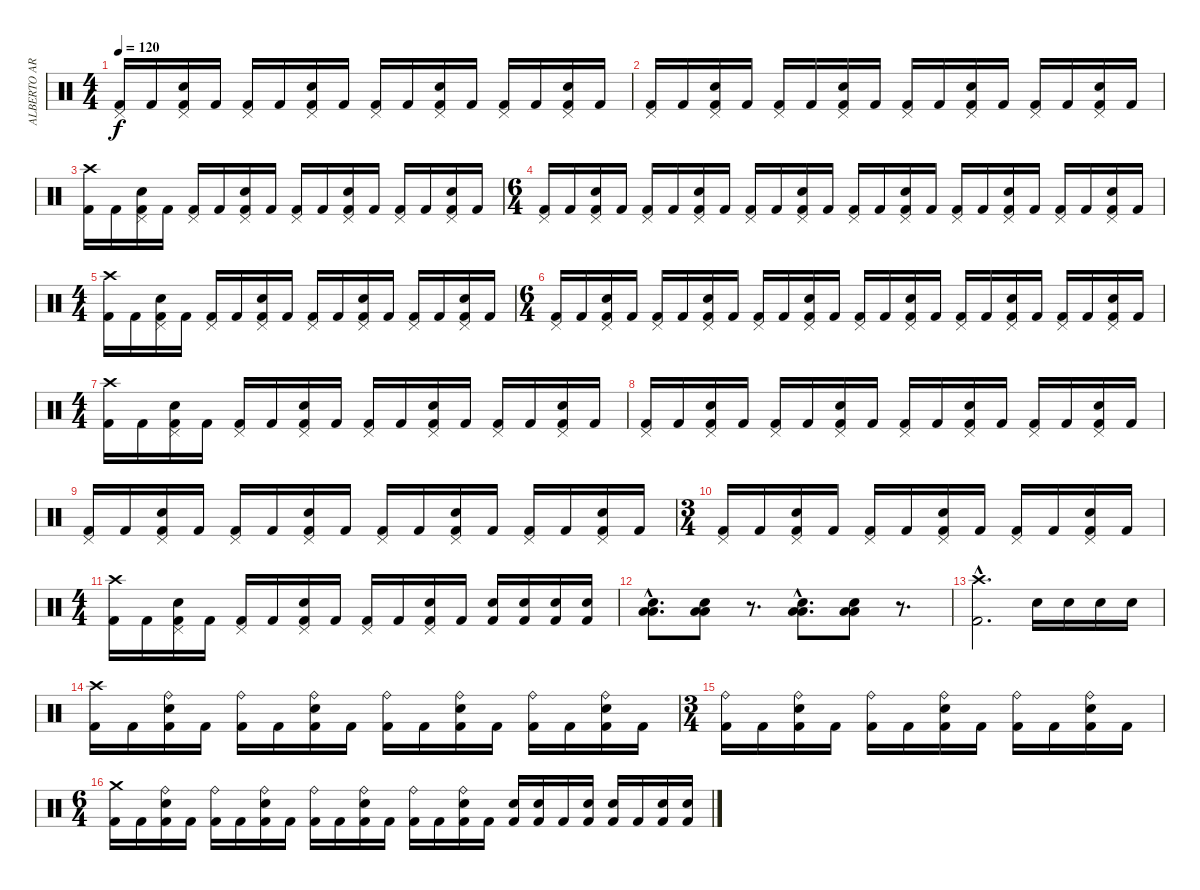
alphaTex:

\track ("ALBERTO ARDINES" "ALBERTO AR") {instrument percussion}
\staff {score}
\articulation defaults
\ts (4 4)
\tempo 120
\clef neutral
\ks c
("Pedal Hi-Hat (hit)" "Kick (hit) 2").16{dy f} "Kick (hit) 2".16 ("Pedal Hi-Hat (hit)" "Electric Snare (hit)" "Kick (hit) 2").16 "Kick (hit) 2".16 ("Pedal Hi-Hat (hit)" "Kick (hit) 2").16 "Kick (hit) 2".16 ("Pedal Hi-Hat (hit)" "Electric Snare (hit)" "Kick (hit) 2").16 "Kick (hit) 2".16 ("Pedal Hi-Hat (hit)" "Kick (hit) 2").16 "Kick (hit) 2".16 ("Pedal Hi-Hat (hit)" "Electric Snare (hit)" "Kick (hit) 2").16 "Kick (hit) 2".16 ("Pedal Hi-Hat (hit)" "Kick (hit) 2").16 "Kick (hit) 2".16 ("Pedal Hi-Hat (hit)" "Electric Snare (hit)" "Kick (hit) 2").16 "Kick (hit) 2".16 |
("Pedal Hi-Hat (hit)" "Kick (hit) 2").16 "Kick (hit) 2".16 ("Pedal Hi-Hat (hit)" "Electric Snare (hit)" "Kick (hit) 2").16 "Kick (hit) 2".16 ("Pedal Hi-Hat (hit)" "Kick (hit) 2").16 "Kick (hit) 2".16 ("Pedal Hi-Hat (hit)" "Electric Snare (hit)" "Kick (hit) 2").16 "Kick (hit) 2".16 ("Pedal Hi-Hat (hit)" "Kick (hit) 2").16 "Kick (hit) 2".16 ("Pedal Hi-Hat (hit)" "Electric Snare (hit)" "Kick (hit) 2").16 "Kick (hit) 2".16 ("Pedal Hi-Hat (hit)" "Kick (hit) 2").16 "Kick (hit) 2".16 ("Pedal Hi-Hat (hit)" "Electric Snare (hit)" "Kick (hit) 2").16 "Kick (hit) 2".16 |
("Crash high (hit)" "Kick (hit) 2").16 "Kick (hit) 2".16 ("Pedal Hi-Hat (hit)" "Electric Snare (hit)" "Kick (hit) 2").16 "Kick (hit) 2".16 ("Pedal Hi-Hat (hit)" "Kick (hit) 2").16 "Kick (hit) 2".16 ("Pedal Hi-Hat (hit)" "Electric Snare (hit)" "Kick (hit) 2").16 "Kick (hit) 2".16 ("Pedal Hi-Hat (hit)" "Kick (hit) 2").16 "Kick (hit) 2".16 ("Pedal Hi-Hat (hit)" "Electric Snare (hit)" "Kick (hit) 2").16 "Kick (hit) 2".16 ("Pedal Hi-Hat (hit)" "Kick (hit) 2").16 "Kick (hit) 2".16 ("Pedal Hi-Hat (hit)" "Electric Snare (hit)" "Kick (hit) 2").16 "Kick (hit) 2".16 |
\ts (6 4)
("Pedal Hi-Hat (hit)" "Kick (hit) 2").16 "Kick (hit) 2".16 ("Pedal Hi-Hat (hit)" "Electric Snare (hit)" "Kick (hit) 2").16 "Kick (hit) 2".16 ("Pedal Hi-Hat (hit)" "Kick (hit) 2").16 "Kick (hit) 2".16 ("Pedal Hi-Hat (hit)" "Electric Snare (hit)" "Kick (hit) 2").16 "Kick (hit) 2".16 ("Pedal Hi-Hat (hit)" "Kick (hit) 2").16 "Kick (hit) 2".16 ("Pedal Hi-Hat (hit)" "Electric Snare (hit)" "Kick (hit) 2").16 "Kick (hit) 2".16 ("Pedal Hi-Hat (hit)" "Kick (hit) 2").16 "Kick (hit) 2".16 ("Pedal Hi-Hat (hit)" "Electric Snare (hit)" "Kick (hit) 2").16 "Kick (hit) 2".16 ("Pedal Hi-Hat (hit)" "Kick (hit) 2").16 "Kick (hit) 2".16 ("Pedal Hi-Hat (hit)" "Electric Snare (hit)" "Kick (hit) 2").16 "Kick (hit) 2".16 ("Pedal Hi-Hat (hit)" "Kick (hit) 2").16 "Kick (hit) 2".16 ("Pedal Hi-Hat (hit)" "Electric Snare (hit)" "Kick (hit) 2").16 "Kick (hit) 2".16 |
\ts (4 4)
("Crash high (hit)" "Kick (hit) 2").16 "Kick (hit) 2".16 ("Pedal Hi-Hat (hit)" "Electric Snare (hit)" "Kick (hit) 2").16 "Kick (hit) 2".16 ("Pedal Hi-Hat (hit)" "Kick (hit) 2").16 "Kick (hit) 2".16 ("Pedal Hi-Hat (hit)" "Electric Snare (hit)" "Kick (hit) 2").16 "Kick (hit) 2".16 ("Pedal Hi-Hat (hit)" "Kick (hit) 2").16 "Kick (hit) 2".16 ("Pedal Hi-Hat (hit)" "Electric Snare (hit)" "Kick (hit) 2").16 "Kick (hit) 2".16 ("Pedal Hi-Hat (hit)" "Kick (hit) 2").16 "Kick (hit) 2".16 ("Pedal Hi-Hat (hit)" "Electric Snare (hit)" "Kick (hit) 2").16 "Kick (hit) 2".16 |
\ts (6 4)
("Pedal Hi-Hat (hit)" "Kick (hit) 2").16 "Kick (hit) 2".16 ("Pedal Hi-Hat (hit)" "Electric Snare (hit)" "Kick (hit) 2").16 "Kick (hit) 2".16 ("Pedal Hi-Hat (hit)" "Kick (hit) 2").16 "Kick (hit) 2".16 ("Pedal Hi-Hat (hit)" "Electric Snare (hit)" "Kick (hit) 2").16 "Kick (hit) 2".16 ("Pedal Hi-Hat (hit)" "Kick (hit) 2").16 "Kick (hit) 2".16 ("Pedal Hi-Hat (hit)" "Electric Snare (hit)" "Kick (hit) 2").16 "Kick (hit) 2".16 ("Pedal Hi-Hat (hit)" "Kick (hit) 2").16 "Kick (hit) 2".16 ("Pedal Hi-Hat (hit)" "Electric Snare (hit)" "Kick (hit) 2").16 "Kick (hit) 2".16 ("Pedal Hi-Hat (hit)" "Kick (hit) 2").16 "Kick (hit) 2".16 ("Pedal Hi-Hat (hit)" "Electric Snare (hit)" "Kick (hit) 2").16 "Kick (hit) 2".16 ("Pedal Hi-Hat (hit)" "Kick (hit) 2").16 "Kick (hit) 2".16 ("Pedal Hi-Hat (hit)" "Electric Snare (hit)" "Kick (hit) 2").16 "Kick (hit) 2".16 |
\ts (4 4)
("Crash high (hit)" "Kick (hit) 2").16 "Kick (hit) 2".16 ("Pedal Hi-Hat (hit)" "Electric Snare (hit)" "Kick (hit) 2").16 "Kick (hit) 2".16 ("Pedal Hi-Hat (hit)" "Kick (hit) 2").16 "Kick (hit) 2".16 ("Pedal Hi-Hat (hit)" "Electric Snare (hit)" "Kick (hit) 2").16 "Kick (hit) 2".16 ("Pedal Hi-Hat (hit)" "Kick (hit) 2").16 "Kick (hit) 2".16 ("Pedal Hi-Hat (hit)" "Electric Snare (hit)" "Kick (hit) 2").16 "Kick (hit) 2".16 ("Pedal Hi-Hat (hit)" "Kick (hit) 2").16 "Kick (hit) 2".16 ("Pedal Hi-Hat (hit)" "Electric Snare (hit)" "Kick (hit) 2").16 "Kick (hit) 2".16 |
("Pedal Hi-Hat (hit)" "Kick (hit) 2").16 "Kick (hit) 2".16 ("Pedal Hi-Hat (hit)" "Electric Snare (hit)" "Kick (hit) 2").16 "Kick (hit) 2".16 ("Pedal Hi-Hat (hit)" "Kick (hit) 2").16 "Kick (hit) 2".16 ("Pedal Hi-Hat (hit)" "Electric Snare (hit)" "Kick (hit) 2").16 "Kick (hit) 2".16 ("Pedal Hi-Hat (hit)" "Kick (hit) 2").16 "Kick (hit) 2".16 ("Pedal Hi-Hat (hit)" "Electric Snare (hit)" "Kick (hit) 2").16 "Kick (hit) 2".16 ("Pedal Hi-Hat (hit)" "Kick (hit) 2").16 "Kick (hit) 2".16 ("Pedal Hi-Hat (hit)" "Electric Snare (hit)" "Kick (hit) 2").16 "Kick (hit) 2".16 |
("Pedal Hi-Hat (hit)" "Kick (hit) 2").16 "Kick (hit) 2".16 ("Pedal Hi-Hat (hit)" "Electric Snare (hit)" "Kick (hit) 2").16 "Kick (hit) 2".16 ("Pedal Hi-Hat (hit)" "Kick (hit) 2").16 "Kick (hit) 2".16 ("Pedal Hi-Hat (hit)" "Electric Snare (hit)" "Kick (hit) 2").16 "Kick (hit) 2".16 ("Pedal Hi-Hat (hit)" "Kick (hit) 2").16 "Kick (hit) 2".16 ("Pedal Hi-Hat (hit)" "Electric Snare (hit)" "Kick (hit) 2").16 "Kick (hit) 2".16 ("Pedal Hi-Hat (hit)" "Kick (hit) 2").16 "Kick (hit) 2".16 ("Pedal Hi-Hat (hit)" "Electric Snare (hit)" "Kick (hit) 2").16 "Kick (hit) 2".16 |
\ts (3 4)
("Pedal Hi-Hat (hit)" "Kick (hit) 2").16 "Kick (hit) 2".16 ("Pedal Hi-Hat (hit)" "Electric Snare (hit)" "Kick (hit) 2").16 "Kick (hit) 2".16 ("Pedal Hi-Hat (hit)" "Kick (hit) 2").16 "Kick (hit) 2".16 ("Pedal Hi-Hat (hit)" "Electric Snare (hit)" "Kick (hit) 2").16 "Kick (hit) 2".16 ("Pedal Hi-Hat (hit)" "Kick (hit) 2").16 "Kick (hit) 2".16 ("Pedal Hi-Hat (hit)" "Electric Snare (hit)" "Kick (hit) 2").16 "Kick (hit) 2".16 |
\ts (4 4)
("Crash high (hit)" "Kick (hit) 2").16 "Kick (hit) 2".16 ("Pedal Hi-Hat (hit)" "Electric Snare (hit)" "Kick (hit) 2").16 "Kick (hit) 2".16 ("Pedal Hi-Hat (hit)" "Kick (hit) 2").16 "Kick (hit) 2".16 ("Pedal Hi-Hat (hit)" "Electric Snare (hit)" "Kick (hit) 2").16 "Kick (hit) 2".16 ("Pedal Hi-Hat (hit)" "Kick (hit) 2").16 "Kick (hit) 2".16 ("Pedal Hi-Hat (hit)" "Electric Snare (hit)" "Kick (hit) 2").16 "Kick (hit) 2".16 ("Electric Snare (hit)" "Kick (hit) 2").16 ("Electric Snare (hit)" "Kick (hit) 2").16 ("Electric Snare (hit)" "Kick (hit) 2").16 ("Electric Snare (hit)" "Kick (hit) 2").16 |
("Low Tom (hit)"{hac} "Low Floor Tom (hit)"{hac} "Electric Snare (hit)"{hac}).8{d} ("Low Tom (hit)" "Low Floor Tom (hit)" "Electric Snare (hit)").8 r.8{d} ("Low Tom (hit)"{hac} "Low Floor Tom (hit)"{hac} "Electric Snare (hit)"{hac}).8{d} ("Low Tom (hit)" "Low Floor Tom (hit)" "Electric Snare (hit)").8 r.8{d} |
("Crash high (hit)"{hac} "Kick (hit) 2"{hac}).2{d} "Electric Snare (hit)".16 "Electric Snare (hit)".16 "Electric Snare (hit)".16 "Electric Snare (hit)".16 |
("Crash high (hit)" "Kick (hit) 2").16 "Kick (hit) 2".16 ("Ride (bell)" "Electric Snare (hit)" "Kick (hit) 2").16 "Kick (hit) 2".16 ("Ride (bell)" "Kick (hit) 2").16 "Kick (hit) 2".16 ("Ride (bell)" "Electric Snare (hit)" "Kick (hit) 2").16 "Kick (hit) 2".16 ("Ride (bell)" "Kick (hit) 2").16 "Kick (hit) 2".16 ("Ride (bell)" "Electric Snare (hit)" "Kick (hit) 2").16 "Kick (hit) 2".16 ("Ride (bell)" "Kick (hit) 2").16 "Kick (hit) 2".16 ("Ride (bell)" "Electric Snare (hit)" "Kick (hit) 2").16 "Kick (hit) 2".16 |
\ts (3 4)
("Ride (bell)" "Kick (hit) 2").16 "Kick (hit) 2".16 ("Ride (bell)" "Electric Snare (hit)" "Kick (hit) 2").16 "Kick (hit) 2".16 ("Ride (bell)" "Kick (hit) 2").16 "Kick (hit) 2".16 ("Ride (bell)" "Electric Snare (hit)" "Kick (hit) 2").16 "Kick (hit) 2".16 ("Ride (bell)" "Kick (hit) 2").16 "Kick (hit) 2".16 ("Ride (bell)" "Electric Snare (hit)" "Kick (hit) 2").16 "Kick (hit) 2".16 |
\ts (6 4)
("Crash medium (hit)" "Kick (hit) 2").16 "Kick (hit) 2".16 ("Ride (bell)" "Electric Snare (hit)" "Kick (hit) 2").16 "Kick (hit) 2".16 ("Ride (bell)" "Kick (hit) 2").16 "Kick (hit) 2".16 ("Ride (bell)" "Electric Snare (hit)" "Kick (hit) 2").16 "Kick (hit) 2".16 ("Ride (bell)" "Kick (hit) 2").16 "Kick (hit) 2".16 ("Ride (bell)" "Electric Snare (hit)" "Kick (hit) 2").16 "Kick (hit) 2".16 ("Ride (bell)" "Kick (hit) 2").16 "Kick (hit) 2".16 ("Ride (bell)" "Electric Snare (hit)" "Kick (hit) 2").16 "Kick (hit) 2".16 ("Electric Snare (hit)" "Kick (hit) 2").16 ("Electric Snare (hit)" "Kick (hit) 2").16 "Kick (hit) 2".16 ("Electric Snare (hit)" "Kick (hit) 2").16 ("Electric Snare (hit)" "Kick (hit) 2").16 "Kick (hit) 2".16 ("Electric Snare (hit)" "Kick (hit) 2").16 ("Electric Snare (hit)" "Kick (hit) 2").16
